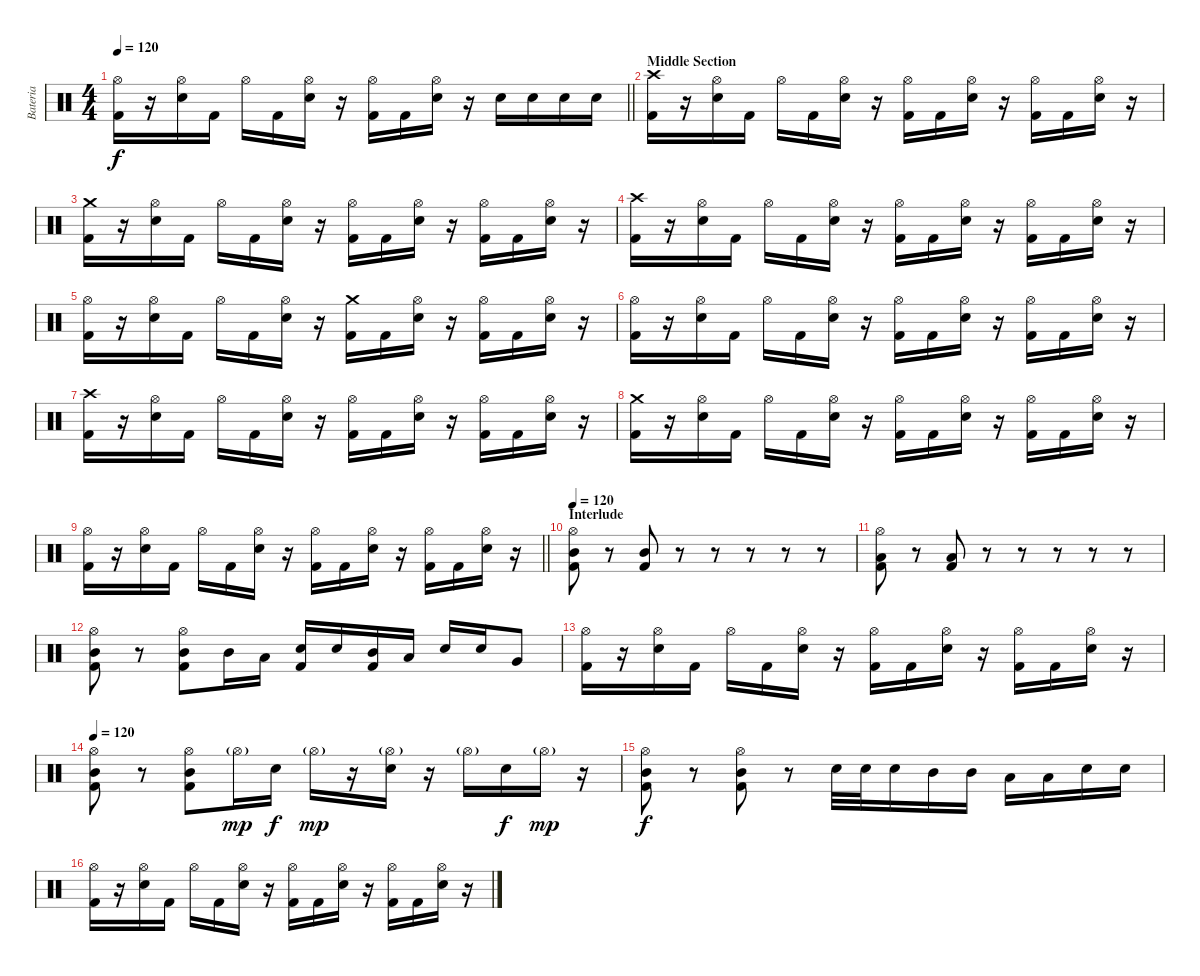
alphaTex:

\track ("Bateria" "Bateria") {instrument percussion}
\staff {score}
\articulation defaults
\ts (4 4)
\tempo 120
\clef neutral
\barLineRight lightlight
\ks c
("Hi-Hat (open)" "Kick (hit) 2").16{dy f} r.16 ("Hi-Hat (open)" "Electric Snare (hit)").16 "Kick (hit) 2".16 "Hi-Hat (open)".16 "Kick (hit) 2".16 ("Hi-Hat (open)" "Electric Snare (hit)").16 r.16 ("Hi-Hat (open)" "Kick (hit) 2").16 "Kick (hit) 2".16 ("Hi-Hat (open)" "Electric Snare (hit)").16 r.16 "Electric Snare (hit)".16 "Electric Snare (hit)".16 "Electric Snare (hit)".16 "Electric Snare (hit)".16 |
\section ("" "Middle Section")
("Crash high (hit)" "Kick (hit) 2").16 r.16 ("Hi-Hat (open)" "Electric Snare (hit)").16 "Kick (hit) 2".16 "Hi-Hat (open)".16 "Kick (hit) 2".16 ("Hi-Hat (open)" "Electric Snare (hit)").16 r.16 ("Hi-Hat (open)" "Kick (hit) 2").16 "Kick (hit) 2".16 ("Hi-Hat (open)" "Electric Snare (hit)").16 r.16 ("Hi-Hat (open)" "Kick (hit) 2").16 "Kick (hit) 2".16 ("Hi-Hat (open)" "Electric Snare (hit)").16 r.16 |
("Crash medium (hit)" "Kick (hit) 2").16 r.16 ("Hi-Hat (open)" "Electric Snare (hit)").16 "Kick (hit) 2".16 "Hi-Hat (open)".16 "Kick (hit) 2".16 ("Hi-Hat (open)" "Electric Snare (hit)").16 r.16 ("Hi-Hat (open)" "Kick (hit) 2").16 "Kick (hit) 2".16 ("Hi-Hat (open)" "Electric Snare (hit)").16 r.16 ("Hi-Hat (open)" "Kick (hit) 2").16 "Kick (hit) 2".16 ("Hi-Hat (open)" "Electric Snare (hit)").16 r.16 |
("Crash high (hit)" "Kick (hit) 2").16 r.16 ("Hi-Hat (open)" "Electric Snare (hit)").16 "Kick (hit) 2".16 "Hi-Hat (open)".16 "Kick (hit) 2".16 ("Hi-Hat (open)" "Electric Snare (hit)").16 r.16 ("Hi-Hat (open)" "Kick (hit) 2").16 "Kick (hit) 2".16 ("Hi-Hat (open)" "Electric Snare (hit)").16 r.16 ("Hi-Hat (open)" "Kick (hit) 2").16 "Kick (hit) 2".16 ("Hi-Hat (open)" "Electric Snare (hit)").16 r.16 |
("Hi-Hat (open)" "Kick (hit) 2").16 r.16 ("Hi-Hat (open)" "Electric Snare (hit)").16 "Kick (hit) 2".16 "Hi-Hat (open)".16 "Kick (hit) 2".16 ("Hi-Hat (open)" "Electric Snare (hit)").16 r.16 ("Crash medium (hit)" "Kick (hit) 2").16 "Kick (hit) 2".16 ("Hi-Hat (open)" "Electric Snare (hit)").16 r.16 ("Hi-Hat (open)" "Kick (hit) 2").16 "Kick (hit) 2".16 ("Hi-Hat (open)" "Electric Snare (hit)").16 r.16 |
("Hi-Hat (open)" "Kick (hit) 2").16 r.16 ("Hi-Hat (open)" "Electric Snare (hit)").16 "Kick (hit) 2".16 "Hi-Hat (open)".16 "Kick (hit) 2".16 ("Hi-Hat (open)" "Electric Snare (hit)").16 r.16 ("Hi-Hat (open)" "Kick (hit) 2").16 "Kick (hit) 2".16 ("Hi-Hat (open)" "Electric Snare (hit)").16 r.16 ("Hi-Hat (open)" "Kick (hit) 2").16 "Kick (hit) 2".16 ("Hi-Hat (open)" "Electric Snare (hit)").16 r.16 |
("Crash high (hit)" "Kick (hit) 2").16 r.16 ("Hi-Hat (open)" "Electric Snare (hit)").16 "Kick (hit) 2".16 "Hi-Hat (open)".16 "Kick (hit) 2".16 ("Hi-Hat (open)" "Electric Snare (hit)").16 r.16 ("Hi-Hat (open)" "Kick (hit) 2").16 "Kick (hit) 2".16 ("Hi-Hat (open)" "Electric Snare (hit)").16 r.16 ("Hi-Hat (open)" "Kick (hit) 2").16 "Kick (hit) 2".16 ("Hi-Hat (open)" "Electric Snare (hit)").16 r.16 |
("Crash medium (hit)" "Kick (hit) 2").16 r.16 ("Hi-Hat (open)" "Electric Snare (hit)").16 "Kick (hit) 2".16 "Hi-Hat (open)".16 "Kick (hit) 2".16 ("Hi-Hat (open)" "Electric Snare (hit)").16 r.16 ("Hi-Hat (open)" "Kick (hit) 2").16 "Kick (hit) 2".16 ("Hi-Hat (open)" "Electric Snare (hit)").16 r.16 ("Hi-Hat (open)" "Kick (hit) 2").16 "Kick (hit) 2".16 ("Hi-Hat (open)" "Electric Snare (hit)").16 r.16 |
\barLineRight lightlight
("Hi-Hat (open)" "Kick (hit) 2").16 r.16 ("Hi-Hat (open)" "Electric Snare (hit)").16 "Kick (hit) 2".16 "Hi-Hat (open)".16 "Kick (hit) 2".16 ("Hi-Hat (open)" "Electric Snare (hit)").16 r.16 ("Hi-Hat (open)" "Kick (hit) 2").16 "Kick (hit) 2".16 ("Hi-Hat (open)" "Electric Snare (hit)").16 r.16 ("Hi-Hat (open)" "Kick (hit) 2").16 "Kick (hit) 2".16 ("Hi-Hat (open)" "Electric Snare (hit)").16 r.16 |
\section ("" "Interlude")
\tempo 120
("Hi-Hat (open)" "Mid Tom (hit)" "Kick (hit) 2").8 r.8 ("Mid Tom (hit)" "Kick (hit) 2").8 r.8 r.8 r.8 r.8 r.8 |
("Hi-Hat (open)" "Low Tom (hit)" "Kick (hit) 2").8 r.8 ("Low Tom (hit)" "Kick (hit) 2").8 r.8 r.8 r.8 r.8 r.8 |
("Hi-Hat (open)" "Mid Tom (hit)" "Kick (hit) 2").8 r.8 ("Hi-Hat (open)" "Mid Tom (hit)" "Kick (hit) 2").8 "Mid Tom (hit)".16 "Low Tom (hit)".16 ("Electric Snare (hit)" "Kick (hit) 2").16 "Electric Snare (hit)".16 ("Mid Tom (hit)" "Kick (hit) 2").16 "Low Tom (hit)".16 "Electric Snare (hit)".16 "Electric Snare (hit)".16 "Very Low Tom (hit)".8 |
("Hi-Hat (open)" "Kick (hit) 2").16 r.16 ("Hi-Hat (open)" "Electric Snare (hit)").16 "Kick (hit) 2".16 "Hi-Hat (open)".16 "Kick (hit) 2".16 ("Hi-Hat (open)" "Electric Snare (hit)").16 r.16 ("Hi-Hat (open)" "Kick (hit) 2").16 "Kick (hit) 2".16 ("Hi-Hat (open)" "Electric Snare (hit)").16 r.16 ("Hi-Hat (open)" "Kick (hit) 2").16 "Kick (hit) 2".16 ("Hi-Hat (open)" "Electric Snare (hit)").16 r.16 |
\tempo 120
("Hi-Hat (open)" "Mid Tom (hit)" "Kick (hit) 2").8 r.8 ("Hi-Hat (open)" "Mid Tom (hit)" "Kick (hit) 2").8 "Hi-Hat (open)"{g}.16{dy mp} "Electric Snare (hit)".16{dy f} "Hi-Hat (open)"{g}.16{dy mp} r.16 ("Hi-Hat (open)"{g} "Electric Snare (hit)").16 r.16 "Hi-Hat (open)"{g}.16 "Electric Snare (hit)".16{dy f} "Hi-Hat (open)"{g}.16{dy mp} r.16 |
("Hi-Hat (open)" "Mid Tom (hit)" "Kick (hit) 2").8{dy f} r.8 ("Hi-Hat (open)" "Mid Tom (hit)" "Kick (hit) 2").8 r.8 "Electric Snare (hit)".32 "Electric Snare (hit)".32 "Electric Snare (hit)".16 "Mid Tom (hit)".16 "Mid Tom (hit)".16 "Low Tom (hit)".16 "Low Tom (hit)".16 "Electric Snare (hit)".16 "Electric Snare (hit)".16 |
("Hi-Hat (open)" "Kick (hit) 2").16 r.16 ("Hi-Hat (open)" "Electric Snare (hit)").16 "Kick (hit) 2".16 "Hi-Hat (open)".16 "Kick (hit) 2".16 ("Hi-Hat (open)" "Electric Snare (hit)").16 r.16 ("Hi-Hat (open)" "Kick (hit) 2").16 "Kick (hit) 2".16 ("Hi-Hat (open)" "Electric Snare (hit)").16 r.16 ("Hi-Hat (open)" "Kick (hit) 2").16 "Kick (hit) 2".16 ("Hi-Hat (open)" "Electric Snare (hit)").16 r.16
